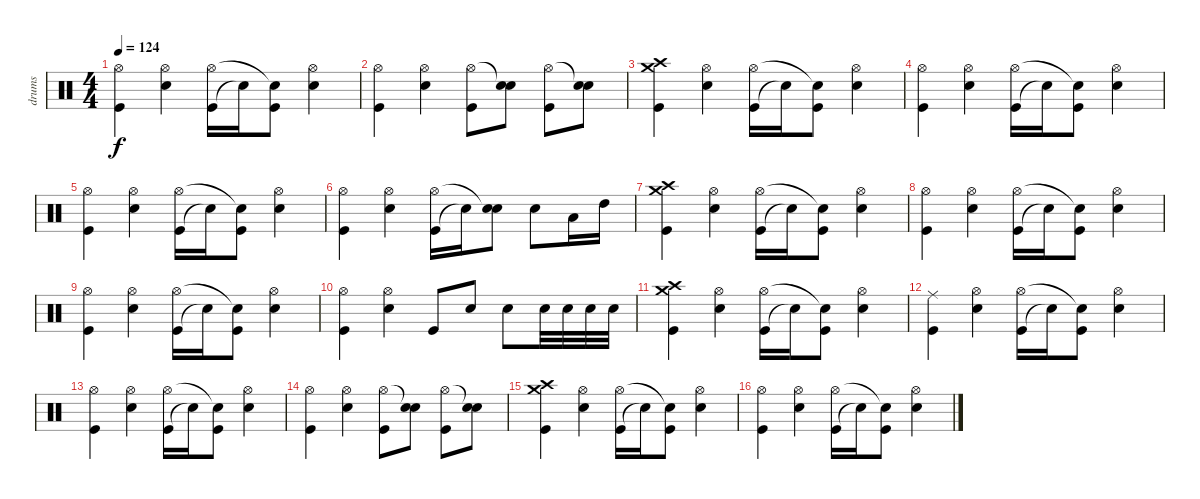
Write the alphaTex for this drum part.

\track ("drums" "drums") {instrument percussion}
\staff {score}
\articulation defaults
\ts (4 4)
\tempo 124
\clef neutral
\ks c
("Kick (hit)" "Hi-Hat (open)").4{dy f} ("Snare (hit) 2" "Hi-Hat (open)").4 ("Kick (hit)" "Hi-Hat (open)").16 "Snare (hit)"{t}.16 ("Kick (hit)" "Snare (hit)"{t}).8 ("Snare (hit) 2" "Hi-Hat (open)").4 |
("Kick (hit)" "Hi-Hat (open)").4 ("Snare (hit) 2" "Hi-Hat (open)").4 ("Kick (hit)" "Hi-Hat (open)").8 ("Snare (hit) 2" "Snare (hit)"{t}).8 ("Kick (hit)" "Hi-Hat (open)").8 ("Snare (hit) 2" "Snare (hit)"{t}).8 |
("Kick (hit)" "Crash medium (hit)" "Crash high (hit)").4 ("Snare (hit) 2" "Hi-Hat (open)").4 ("Kick (hit)" "Hi-Hat (open)").16 "Snare (hit)"{t}.16 ("Kick (hit)" "Snare (hit)"{t}).8 ("Snare (hit) 2" "Hi-Hat (open)").4 |
("Kick (hit)" "Hi-Hat (open)").4 ("Snare (hit) 2" "Hi-Hat (open)").4 ("Kick (hit)" "Hi-Hat (open)").16 "Snare (hit)"{t}.16 ("Kick (hit)" "Snare (hit)"{t}).8 ("Snare (hit) 2" "Hi-Hat (open)").4 |
("Kick (hit)" "Hi-Hat (open)").4 ("Snare (hit) 2" "Hi-Hat (open)").4 ("Kick (hit)" "Hi-Hat (open)").16 "Snare (hit)"{t}.16 ("Kick (hit)" "Snare (hit)"{t}).8 ("Snare (hit) 2" "Hi-Hat (open)").4 |
("Kick (hit)" "Hi-Hat (open)").4 ("Snare (hit) 2" "Hi-Hat (open)").4 ("Kick (hit)" "Hi-Hat (open)").16 "Snare (hit)"{t}.16 ("Snare (hit) 2" "Snare (hit)"{t}).8 "Snare (hit) 2".8 "Low Tom (hit)".16 "High Tom (hit)".16 |
("Kick (hit)" "Crash medium (hit)" "Crash high (hit)").4 ("Snare (hit) 2" "Hi-Hat (open)").4 ("Kick (hit)" "Hi-Hat (open)").16 "Snare (hit)"{t}.16 ("Kick (hit)" "Snare (hit)"{t}).8 ("Snare (hit) 2" "Hi-Hat (open)").4 |
("Kick (hit)" "Hi-Hat (open)").4 ("Snare (hit) 2" "Hi-Hat (open)").4 ("Kick (hit)" "Hi-Hat (open)").16 "Snare (hit)"{t}.16 ("Kick (hit)" "Snare (hit)"{t}).8 ("Snare (hit) 2" "Hi-Hat (open)").4 |
("Kick (hit)" "Hi-Hat (open)").4 ("Snare (hit) 2" "Hi-Hat (open)").4 ("Kick (hit)" "Hi-Hat (open)").16 "Snare (hit)"{t}.16 ("Kick (hit)" "Snare (hit)"{t}).8 ("Snare (hit) 2" "Hi-Hat (open)").4 |
("Kick (hit)" "Hi-Hat (open)").4 ("Snare (hit) 2" "Hi-Hat (open)").4 "Kick (hit)".8 "Snare (hit) 2".8 "Snare (hit) 2".8 "Snare (hit) 2".32 "Snare (hit) 2".32 "Snare (hit) 2".32 "Snare (hit) 2".32 |
("Kick (hit)" "Crash medium (hit)" "Crash high (hit)").4 ("Snare (hit) 2" "Hi-Hat (open)").4 ("Kick (hit)" "Hi-Hat (open)").16 "Snare (hit)"{t}.16 ("Kick (hit)" "Snare (hit)"{t}).8 ("Snare (hit) 2" "Hi-Hat (open)").4 |
("Kick (hit)" "Ride (middle)").4 ("Snare (hit) 2" "Hi-Hat (open)").4 ("Kick (hit)" "Hi-Hat (open)").16 "Snare (hit)"{t}.16 ("Kick (hit)" "Snare (hit)"{t}).8 ("Snare (hit) 2" "Hi-Hat (open)").4 |
("Kick (hit)" "Hi-Hat (open)").4 ("Snare (hit) 2" "Hi-Hat (open)").4 ("Kick (hit)" "Hi-Hat (open)").16 "Snare (hit)"{t}.16 ("Kick (hit)" "Snare (hit)"{t}).8 ("Snare (hit) 2" "Hi-Hat (open)").4 |
("Kick (hit)" "Hi-Hat (open)").4 ("Snare (hit) 2" "Hi-Hat (open)").4 ("Kick (hit)" "Hi-Hat (open)").8 ("Snare (hit) 2" "Snare (hit)"{t}).8 ("Kick (hit)" "Hi-Hat (open)").8 ("Snare (hit) 2" "Snare (hit)"{t}).8 |
("Kick (hit)" "Crash medium (hit)" "Crash high (hit)").4 ("Snare (hit) 2" "Hi-Hat (open)").4 ("Kick (hit)" "Hi-Hat (open)").16 "Snare (hit)"{t}.16 ("Kick (hit)" "Snare (hit)"{t}).8 ("Snare (hit) 2" "Hi-Hat (open)").4 |
("Kick (hit)" "Hi-Hat (open)").4 ("Snare (hit) 2" "Hi-Hat (open)").4 ("Kick (hit)" "Hi-Hat (open)").16 "Snare (hit)"{t}.16 ("Kick (hit)" "Snare (hit)"{t}).8 ("Snare (hit) 2" "Hi-Hat (open)").4
